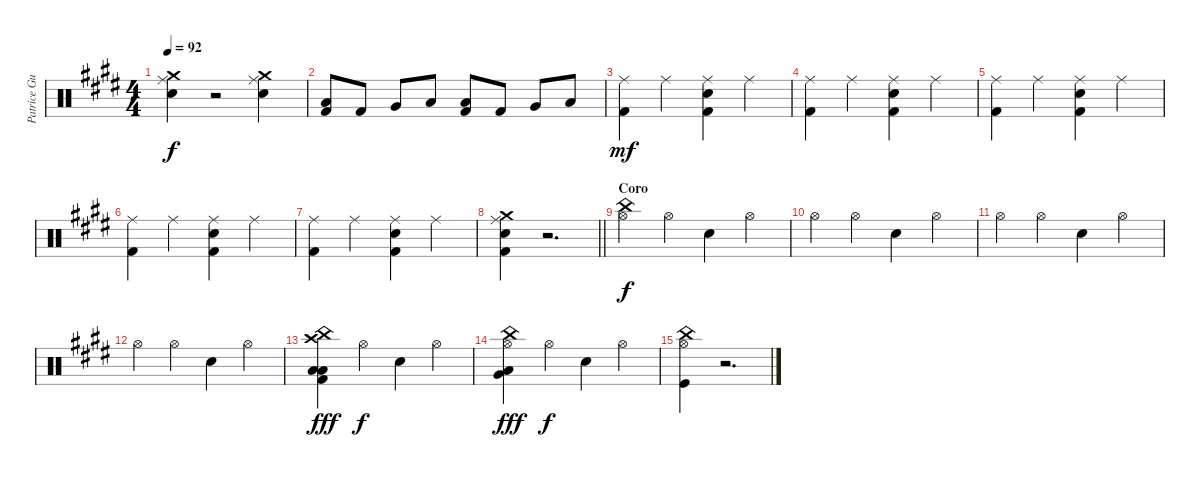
\track ("Patrice Guers" "Patrice Gu") {instrument percussion}
\staff {score}
\articulation defaults
\ts (4 4)
\tempo 92
\clef neutral
\ks c#minor
("Ride (middle)" "Crash medium (hit)" "Snare (hit) 2").4{dy f} r.2 ("Ride (middle)" "Crash medium (hit)" "Snare (hit) 2").4 |
("Low Tom (hit)" "Kick (hit) 2").8 "Kick (hit) 2".8 "Very Low Tom (hit)".8 "Low Floor Tom (hit)".8 ("Low Tom (hit)" "Kick (hit) 2").8 "Kick (hit) 2".8 "Very Low Tom (hit)".8 "Low Floor Tom (hit)".8 |
("Ride (middle)" "Kick (hit) 2").4{dy mf} "Ride (middle)".4 ("Ride (middle)" "Kick (hit) 2" "Snare (hit) 2").4 "Ride (middle)".4 |
("Ride (middle)" "Kick (hit) 2").4 "Ride (middle)".4 ("Ride (middle)" "Kick (hit) 2" "Snare (hit) 2").4 "Ride (middle)".4 |
("Ride (middle)" "Kick (hit) 2").4 "Ride (middle)".4 ("Ride (middle)" "Kick (hit) 2" "Snare (hit) 2").4 "Ride (middle)".4 |
("Ride (middle)" "Kick (hit) 2").4 "Ride (middle)".4 ("Ride (middle)" "Kick (hit) 2" "Snare (hit) 2").4 "Ride (middle)".4 |
("Ride (middle)" "Kick (hit) 2").4 "Ride (middle)".4 ("Ride (middle)" "Kick (hit) 2" "Snare (hit) 2").4 "Ride (middle)".4 |
\barLineRight lightlight
("Ride (middle)" "Kick (hit) 2" "Snare (hit) 2" "Crash medium (hit)").4 r.2{d} |
\section ("" "Coro")
("Hi-Hat (open)" "China (hit)").4{dy f} "Hi-Hat (open)".4 "Electric Snare (hit)".4 "Hi-Hat (open)".4 |
"Hi-Hat (open)".4 "Hi-Hat (open)".4 "Electric Snare (hit)".4 "Hi-Hat (open)".4 |
"Hi-Hat (open)".4 "Hi-Hat (open)".4 "Electric Snare (hit)".4 "Hi-Hat (open)".4 |
"Hi-Hat (open)".4 "Hi-Hat (open)".4 "Electric Snare (hit)".4 "Hi-Hat (open)".4 |
("Crash high (hit)" "Low Floor Tom (hit)" "China (hit)" "Low Floor Tom (hit)" "Kick (hit) 2").4{dy fff} "Hi-Hat (open)".4{dy f} "Electric Snare (hit)".4 "Hi-Hat (open)".4 |
("Hi-Hat (open)" "Low Floor Tom (hit)" "Very Low Tom (hit)" "China (hit)").4{dy fff} "Hi-Hat (open)".4{dy f} "Electric Snare (hit)".4 "Hi-Hat (open)".4 |
("Hi-Hat (open)" "China (hit)" "Kick (hit)").4 r.2{d}
